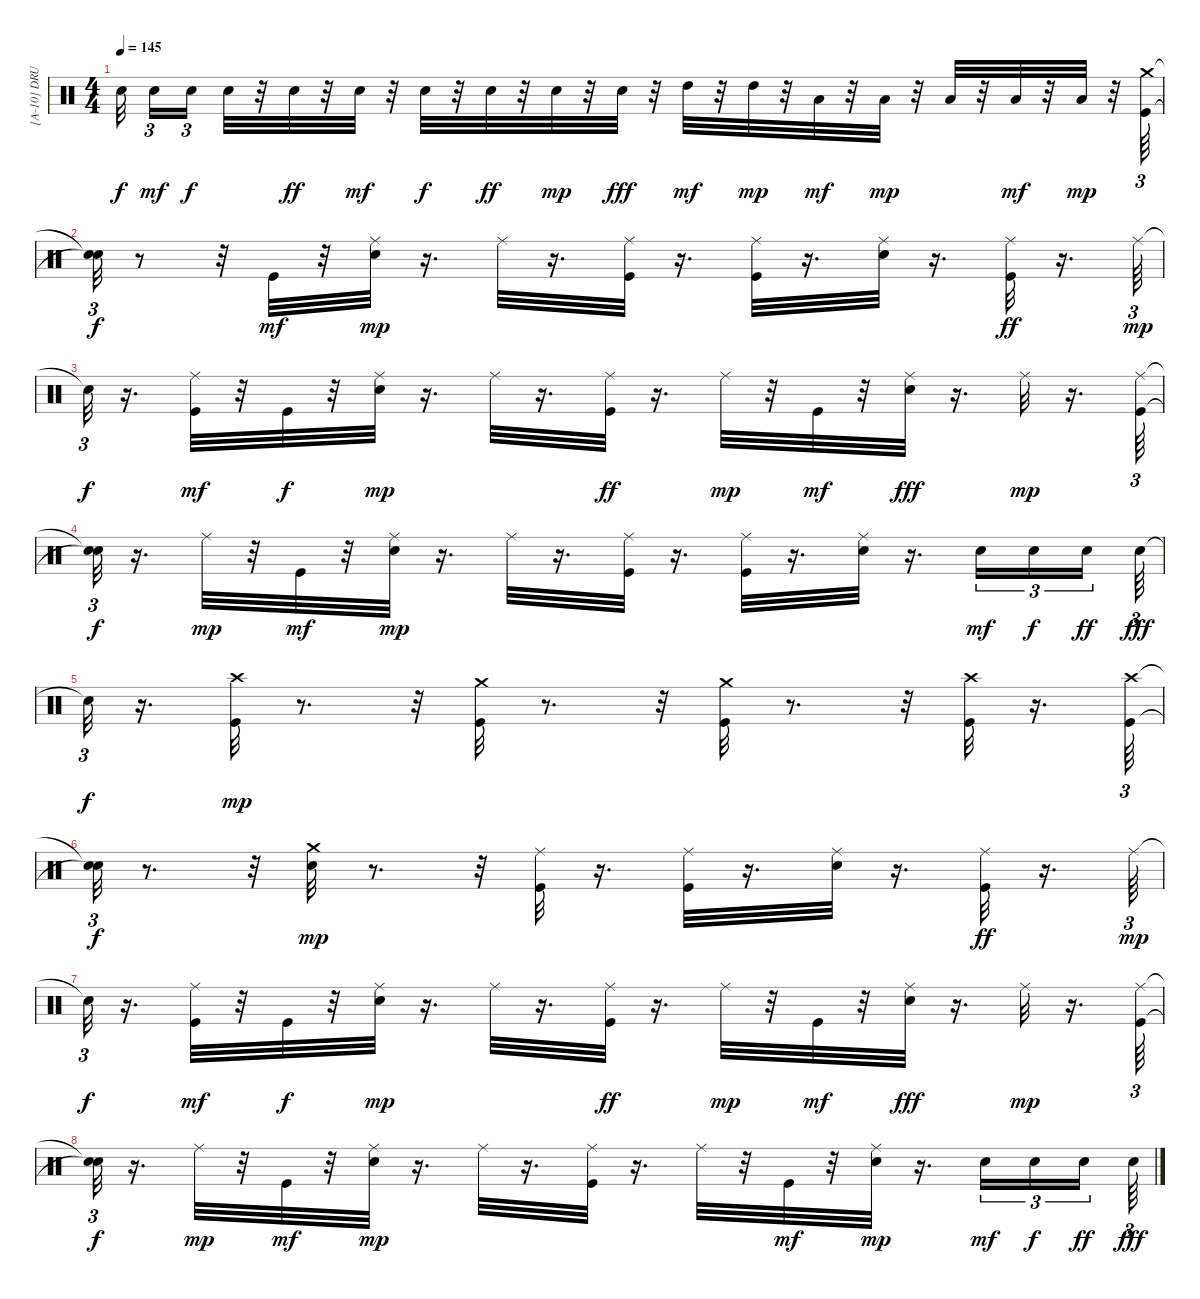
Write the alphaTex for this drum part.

\track ("[A-10] DRUMS" "[A-10] DRU") {instrument percussion}
\staff {score}
\articulation defaults
\ts (4 4)
\tempo 145
\clef neutral
\ks c "Snare (hit)"{t}.32{dy f beam splitsecondary} "Snare (hit) 2".16{tu (3 2) dy mf} "Snare (hit) 2".16{tu (3 2) dy f beam splitsecondary} "Snare (hit) 2".32
r.32 "Snare (hit) 2".32{dy ff} r.32 "Snare (hit) 2".32{dy mf} r.32 "Snare (hit) 2".32{dy f} r.32 "Snare (hit) 2".32{dy ff} r.32 "Snare (hit) 2".32{dy mp} r.32 "Snare (hit) 2".32{dy fff} r.32 "High Tom (hit)".32{dy mf} r.32 "High Tom (hit)".32{dy mp} r.32 "Low Tom (hit)".32{dy mf} r.32 "Low Tom (hit)".32{dy mp} r.32 "Low Tom (hit)".32 r.32 "Low Floor Tom (hit)".32{dy mf} r.32 "Low Floor Tom (hit)".32{dy mp} r.32 ("Kick (hit)" "Crash medium (hit)").64{tu (3 2)} |
("Snare (hit)"{t} "Snare (hit)"{t}).32{tu (3 2) dy f} r.8 r.32 "Kick (hit)".32{dy mf} r.32 ("Snare (hit) 2" "Ride (middle)").32{dy mp} r.16{d} "Ride (middle)".32 r.16{d} ("Kick (hit)" "Ride (middle)").32 r.16{d} ("Kick (hit)" "Ride (middle)").32 r.16{d} ("Snare (hit) 2" "Ride (middle)").32 r.16{d} ("Ride (middle)" "Kick (hit)").32{dy ff} r.16{d} "Ride (middle)".64{tu (3 2) dy mp} |
"Snare (hit)"{t}.32{tu (3 2) dy f} r.16{d} ("Ride (middle)" "Kick (hit)").32{dy mf} r.32 "Kick (hit)".32{dy f} r.32 ("Snare (hit) 2" "Ride (middle)").32{dy mp} r.16{d} "Ride (middle)".32 r.16{d} ("Ride (middle)" "Kick (hit)").32{dy ff} r.16{d} "Ride (middle)".32{dy mp} r.32 "Kick (hit)".32{dy mf} r.32 ("Ride (middle)" "Snare (hit) 2").32{dy fff} r.16{d} "Ride (middle)".32{dy mp} r.16{d} ("Kick (hit)" "Ride (middle)").64{tu (3 2)} |
("Snare (hit)"{t} "Snare (hit)"{t}).32{tu (3 2) dy f} r.16{d} "Ride (middle)".32{dy mp} r.32 "Kick (hit)".32{dy mf} r.32 ("Snare (hit) 2" "Ride (middle)").32{dy mp} r.16{d} "Ride (middle)".32 r.16{d} ("Kick (hit)" "Ride (middle)").32 r.16{d} ("Kick (hit)" "Ride (middle)").32 r.16{d} ("Snare (hit) 2" "Ride (middle)").32 r.16{d} "Snare (hit) 2".16{tu (3 2) dy mf} "Snare (hit) 2".16{tu (3 2) dy f} "Snare (hit) 2".16{tu (3 2) dy ff beam splitsecondary} "Snare (hit) 2".64{tu (3 2) dy fff} |
"Snare (hit)"{t}.32{tu (3 2) dy f} r.16{d} ("Kick (hit)" "Crash high (hit)").32{dy mp} r.8{d} r.32 ("Kick (hit)" "Crash medium (hit)").32 r.8{d} r.32 ("Kick (hit)" "Crash medium (hit)").32 r.8{d} r.32 ("Kick (hit)" "Crash high (hit)").32 r.16{d} ("Kick (hit)" "Crash high (hit)").64{tu (3 2)} |
("Snare (hit)"{t} "Snare (hit)"{t}).32{tu (3 2) dy f} r.8{d} r.32 ("Snare (hit) 2" "Crash medium (hit)").32{dy mp} r.8{d} r.32 ("Kick (hit)" "Ride (middle)").32 r.16{d} ("Kick (hit)" "Ride (middle)").32 r.16{d} ("Snare (hit) 2" "Ride (middle)").32 r.16{d} ("Ride (middle)" "Kick (hit)").32{dy ff} r.16{d} "Ride (middle)".64{tu (3 2) dy mp} |
"Snare (hit)"{t}.32{tu (3 2) dy f} r.16{d} ("Ride (middle)" "Kick (hit)").32{dy mf} r.32 "Kick (hit)".32{dy f} r.32 ("Snare (hit) 2" "Ride (middle)").32{dy mp} r.16{d} "Ride (middle)".32 r.16{d} ("Ride (middle)" "Kick (hit)").32{dy ff} r.16{d} "Ride (middle)".32{dy mp} r.32 "Kick (hit)".32{dy mf} r.32 ("Ride (middle)" "Snare (hit) 2").32{dy fff} r.16{d} "Ride (middle)".32{dy mp} r.16{d} ("Kick (hit)" "Ride (middle)").64{tu (3 2)} |
("Snare (hit)"{t} "Snare (hit)"{t}).32{tu (3 2) dy f} r.16{d} "Ride (middle)".32{dy mp} r.32 "Kick (hit)".32{dy mf} r.32 ("Snare (hit) 2" "Ride (middle)").32{dy mp} r.16{d} "Ride (middle)".32 r.16{d} ("Kick (hit)" "Ride (middle)").32 r.16{d} "Ride (middle)".32 r.32 "Kick (hit)".32{dy mf} r.32 ("Snare (hit) 2" "Ride (middle)").32{dy mp} r.16{d} "Snare (hit) 2".16{tu (3 2) dy mf} "Snare (hit) 2".16{tu (3 2) dy f} "Snare (hit) 2".16{tu (3 2) dy ff beam splitsecondary} "Snare (hit) 2".64{tu (3 2) dy fff}
